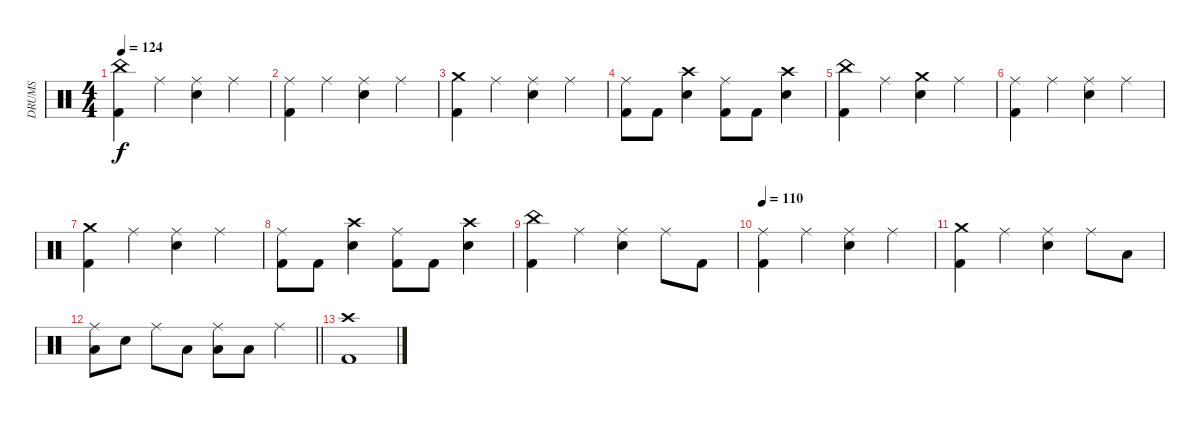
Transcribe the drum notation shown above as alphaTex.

\track ("DRUMS" "DRUMS") {instrument percussion}
\staff {score}
\articulation defaults
\ts (4 4)
\tempo 124
\clef neutral
\ks c
("China (hit)" "Kick (hit) 2").4{dy f} "Ride (middle)".4 ("Ride (middle)" "Snare (hit) 2").4 "Ride (middle)".4 |
("Ride (middle)" "Kick (hit) 2").4 "Ride (middle)".4 ("Ride (middle)" "Snare (hit) 2").4 "Ride (middle)".4 |
("Crash medium (hit)" "Kick (hit) 2").4 "Ride (middle)".4 ("Ride (middle)" "Snare (hit) 2").4 "Ride (middle)".4 |
("Ride (middle)" "Kick (hit) 2").8 "Kick (hit) 2".8 ("Crash high (hit)" "Snare (hit) 2").4 ("Ride (middle)" "Kick (hit) 2").8 "Kick (hit) 2".8 ("Crash high (hit)" "Snare (hit) 2").4 |
("China (hit)" "Kick (hit) 2").4 "Ride (middle)".4 ("Crash medium (hit)" "Snare (hit) 2").4 "Ride (middle)".4 |
("Ride (middle)" "Kick (hit) 2").4 "Ride (middle)".4 ("Ride (middle)" "Snare (hit) 2").4 "Ride (middle)".4 |
("Crash medium (hit)" "Kick (hit) 2").4 "Ride (middle)".4 ("Ride (middle)" "Snare (hit) 2").4 "Ride (middle)".4 |
("Ride (middle)" "Kick (hit) 2").8 "Kick (hit) 2".8 ("Crash high (hit)" "Snare (hit) 2").4 ("Ride (middle)" "Kick (hit) 2").8 "Kick (hit) 2".8 ("Crash high (hit)" "Snare (hit) 2").4 |
("China (hit)" "Kick (hit) 2").4 "Ride (middle)".4 ("Ride (middle)" "Snare (hit) 2").4 "Ride (middle)".8 "Kick (hit) 2".8 |
\tempo 110
("Ride (middle)" "Kick (hit) 2").4 "Ride (middle)".4 ("Ride (middle)" "Snare (hit) 2").4 "Ride (middle)".4 |
("Crash medium (hit)" "Kick (hit) 2").4 "Ride (middle)".4 ("Ride (middle)" "Snare (hit) 2").4 "Ride (middle)".8 "Low Floor Tom (hit)".8 |
\barLineRight lightlight
("Ride (middle)" "Low Floor Tom (hit)").8 "Snare (hit) 2".8 "Ride (middle)".8 "Low Floor Tom (hit)".8 ("Ride (middle)" "Low Floor Tom (hit)").8 "Low Tom (hit)".8 "Ride (middle)".4 |
("Crash high (hit)" "Kick (hit) 2").1
